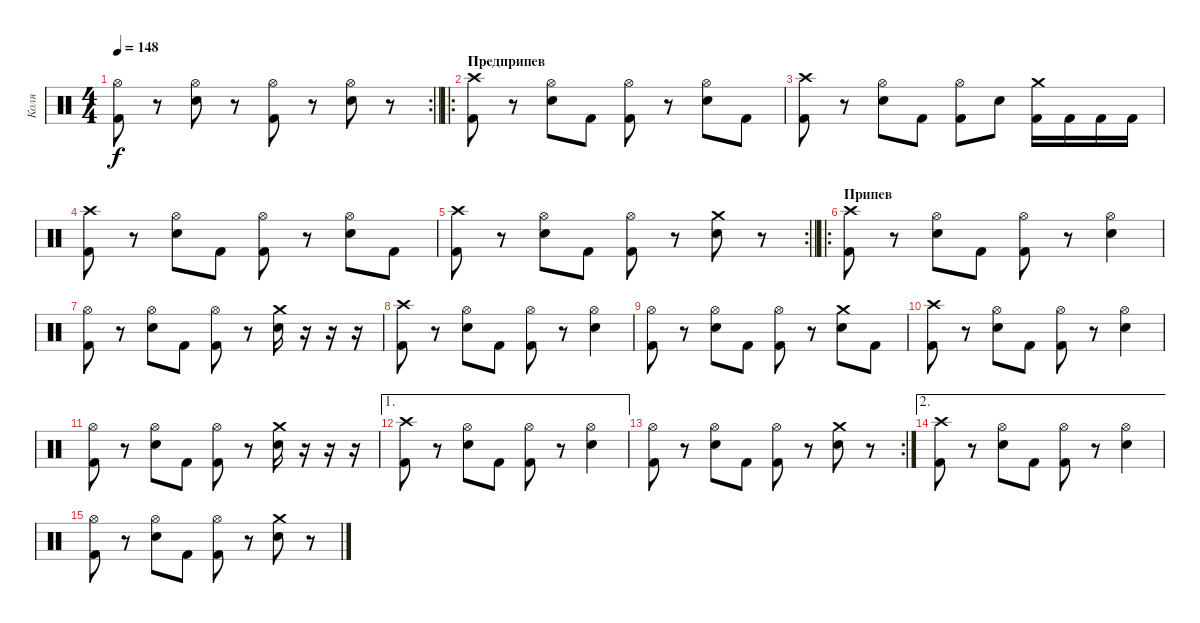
\track ("Коля" "Коля") {instrument percussion}
\staff {score}
\articulation defaults
\rc 2
\ts (4 4)
\tempo 148
\clef neutral
\barLineRight lightlight
\ks c
("Kick (hit) 2" "Hi-Hat (open)").8{dy f} r.8 ("Electric Snare (hit)" "Hi-Hat (open)").8 r.8 ("Kick (hit) 2" "Hi-Hat (open)").8 r.8 ("Electric Snare (hit)" "Hi-Hat (open)").8 r.8 |
\ro
\section ("" "Предприпев")
("Kick (hit) 2" "Crash high (hit)").8 r.8 ("Electric Snare (hit)" "Hi-Hat (open)").8 "Kick (hit) 2".8 ("Kick (hit) 2" "Hi-Hat (open)").8 r.8 ("Electric Snare (hit)" "Hi-Hat (open)").8 "Kick (hit) 2".8 |
("Kick (hit) 2" "Crash high (hit)").8 r.8 ("Electric Snare (hit)" "Hi-Hat (open)").8 "Kick (hit) 2".8 ("Kick (hit) 2" "Hi-Hat (open)").8 "Electric Snare (hit)".8 ("Kick (hit) 2" "Crash medium (hit)").16 "Kick (hit) 2".16 "Kick (hit) 2".16 "Kick (hit) 2".16 |
("Kick (hit) 2" "Crash high (hit)").8 r.8 ("Electric Snare (hit)" "Hi-Hat (open)").8 "Kick (hit) 2".8 ("Kick (hit) 2" "Hi-Hat (open)").8 r.8 ("Electric Snare (hit)" "Hi-Hat (open)").8 "Kick (hit) 2".8 |
\rc 2
\barLineRight lightlight
("Kick (hit) 2" "Crash high (hit)").8 r.8 ("Electric Snare (hit)" "Hi-Hat (open)").8 "Kick (hit) 2".8 ("Kick (hit) 2" "Hi-Hat (open)").8 r.8 ("Electric Snare (hit)" "Crash medium (hit)").8 r.8 |
\ro
\section ("" "Припев")
("Kick (hit) 2" "Crash high (hit)").8 r.8 ("Electric Snare (hit)" "Hi-Hat (open)").8 "Kick (hit) 2".8 ("Kick (hit) 2" "Hi-Hat (open)").8 r.8 ("Electric Snare (hit)" "Hi-Hat (open)").4 |
("Kick (hit) 2" "Hi-Hat (open)").8 r.8 ("Electric Snare (hit)" "Hi-Hat (open)").8 "Kick (hit) 2".8 ("Kick (hit) 2" "Hi-Hat (open)").8 r.8 ("Electric Snare (hit)" "Crash medium (hit)").16 r.16 r.16 r.16 |
("Kick (hit) 2" "Crash high (hit)").8 r.8 ("Electric Snare (hit)" "Hi-Hat (open)").8 "Kick (hit) 2".8 ("Kick (hit) 2" "Hi-Hat (open)").8 r.8 ("Electric Snare (hit)" "Hi-Hat (open)").4 |
("Kick (hit) 2" "Hi-Hat (open)").8 r.8 ("Electric Snare (hit)" "Hi-Hat (open)").8 "Kick (hit) 2".8 ("Kick (hit) 2" "Hi-Hat (open)").8 r.8 ("Electric Snare (hit)" "Crash medium (hit)").8 "Kick (hit) 2".8 |
("Kick (hit) 2" "Crash high (hit)").8 r.8 ("Electric Snare (hit)" "Hi-Hat (open)").8 "Kick (hit) 2".8 ("Kick (hit) 2" "Hi-Hat (open)").8 r.8 ("Electric Snare (hit)" "Hi-Hat (open)").4 |
("Kick (hit) 2" "Hi-Hat (open)").8 r.8 ("Electric Snare (hit)" "Hi-Hat (open)").8 "Kick (hit) 2".8 ("Kick (hit) 2" "Hi-Hat (open)").8 r.8 ("Electric Snare (hit)" "Crash medium (hit)").16 r.16 r.16 r.16 |
\ae 1
("Kick (hit) 2" "Crash high (hit)").8 r.8 ("Electric Snare (hit)" "Hi-Hat (open)").8 "Kick (hit) 2".8 ("Kick (hit) 2" "Hi-Hat (open)").8 r.8 ("Electric Snare (hit)" "Hi-Hat (open)").4 |
\rc 2
("Kick (hit) 2" "Hi-Hat (open)").8 r.8 ("Electric Snare (hit)" "Hi-Hat (open)").8 "Kick (hit) 2".8 ("Kick (hit) 2" "Hi-Hat (open)").8 r.8 ("Electric Snare (hit)" "Crash medium (hit)").8 r.8 |
\ae 2
("Kick (hit) 2" "Crash high (hit)").8 r.8 ("Electric Snare (hit)" "Hi-Hat (open)").8 "Kick (hit) 2".8 ("Kick (hit) 2" "Hi-Hat (open)").8 r.8 ("Electric Snare (hit)" "Hi-Hat (open)").4 |
("Kick (hit) 2" "Hi-Hat (open)").8 r.8 ("Electric Snare (hit)" "Hi-Hat (open)").8 "Kick (hit) 2".8 ("Kick (hit) 2" "Hi-Hat (open)").8 r.8 ("Electric Snare (hit)" "Crash medium (hit)").8 r.8
